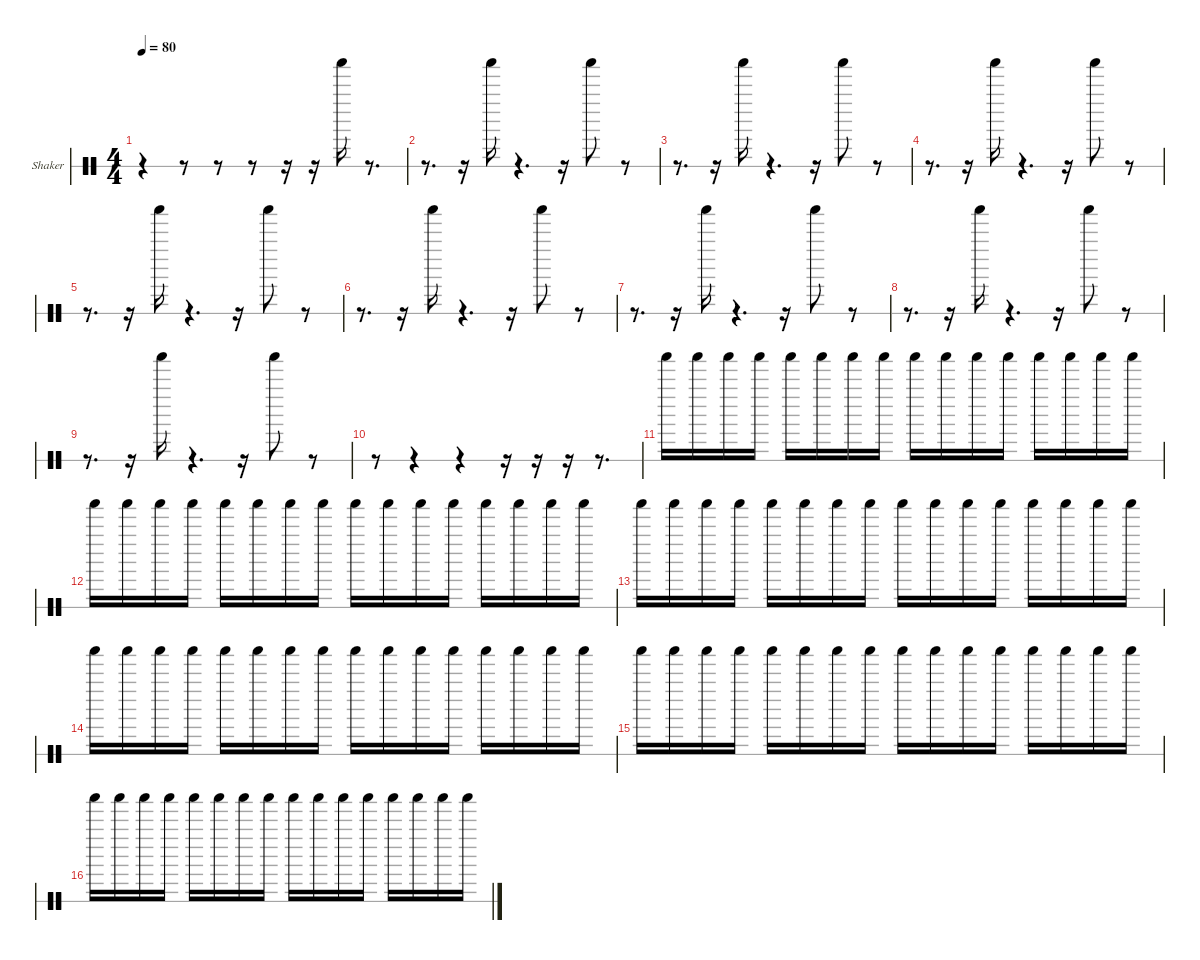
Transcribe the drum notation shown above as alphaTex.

\hideDynamics
\bracketExtendMode nobrackets
\firstSystemTrackNameOrientation horizontal
\otherSystemsTrackNameOrientation horizontal
\track ("Shaker" "Shaker") {instrument percussion}
\staff {score 1}
\articulation defaults
\ts (4 4)
\tempo 80
\clef neutral
\ks c
r.4{dy f} r.8 r.8 r.8 r.16 r.16 "Shaker (hit)".16 r.8{d} |
r.8{d} r.16 "Shaker (hit)".16 r.4{d} r.16 "Shaker (hit)".8 r.8 |
r.8{d} r.16 "Shaker (hit)".16 r.4{d} r.16 "Shaker (hit)".8 r.8 |
r.8{d} r.16 "Shaker (hit)".16 r.4{d} r.16 "Shaker (hit)".8 r.8 |
r.8{d} r.16 "Shaker (hit)".16 r.4{d} r.16 "Shaker (hit)".8 r.8 |
r.8{d} r.16 "Shaker (hit)".16 r.4{d} r.16 "Shaker (hit)".8 r.8 |
r.8{d} r.16 "Shaker (hit)".16 r.4{d} r.16 "Shaker (hit)".8 r.8 |
r.8{d} r.16 "Shaker (hit)".16 r.4{d} r.16 "Shaker (hit)".8 r.8 |
r.8{d} r.16 "Shaker (hit)".16 r.4{d} r.16 "Shaker (hit)".8 r.8 |
r.8 r.4 r.4 r.16 r.16 r.16 r.8{d} |
"Shaker (hit)".16 "Shaker (hit)".16 "Shaker (hit)".16 "Shaker (hit)".16 "Shaker (hit)".16 "Shaker (hit)".16 "Shaker (hit)".16 "Shaker (hit)".16 "Shaker (hit)".16 "Shaker (hit)".16 "Shaker (hit)".16 "Shaker (hit)".16 "Shaker (hit)".16 "Shaker (hit)".16 "Shaker (hit)".16 "Shaker (hit)".16 |
"Shaker (hit)".16 "Shaker (hit)".16 "Shaker (hit)".16 "Shaker (hit)".16 "Shaker (hit)".16 "Shaker (hit)".16 "Shaker (hit)".16 "Shaker (hit)".16 "Shaker (hit)".16 "Shaker (hit)".16 "Shaker (hit)".16 "Shaker (hit)".16 "Shaker (hit)".16 "Shaker (hit)".16 "Shaker (hit)".16 "Shaker (hit)".16 |
"Shaker (hit)".16 "Shaker (hit)".16 "Shaker (hit)".16 "Shaker (hit)".16 "Shaker (hit)".16 "Shaker (hit)".16 "Shaker (hit)".16 "Shaker (hit)".16 "Shaker (hit)".16 "Shaker (hit)".16 "Shaker (hit)".16 "Shaker (hit)".16 "Shaker (hit)".16 "Shaker (hit)".16 "Shaker (hit)".16 "Shaker (hit)".16 |
"Shaker (hit)".16 "Shaker (hit)".16 "Shaker (hit)".16 "Shaker (hit)".16 "Shaker (hit)".16 "Shaker (hit)".16 "Shaker (hit)".16 "Shaker (hit)".16 "Shaker (hit)".16 "Shaker (hit)".16 "Shaker (hit)".16 "Shaker (hit)".16 "Shaker (hit)".16 "Shaker (hit)".16 "Shaker (hit)".16 "Shaker (hit)".16 |
"Shaker (hit)".16 "Shaker (hit)".16 "Shaker (hit)".16 "Shaker (hit)".16 "Shaker (hit)".16 "Shaker (hit)".16 "Shaker (hit)".16 "Shaker (hit)".16 "Shaker (hit)".16 "Shaker (hit)".16 "Shaker (hit)".16 "Shaker (hit)".16 "Shaker (hit)".16 "Shaker (hit)".16 "Shaker (hit)".16 "Shaker (hit)".16 |
"Shaker (hit)".16 "Shaker (hit)".16 "Shaker (hit)".16 "Shaker (hit)".16 "Shaker (hit)".16 "Shaker (hit)".16 "Shaker (hit)".16 "Shaker (hit)".16 "Shaker (hit)".16 "Shaker (hit)".16 "Shaker (hit)".16 "Shaker (hit)".16 "Shaker (hit)".16 "Shaker (hit)".16 "Shaker (hit)".16 "Shaker (hit)".16
